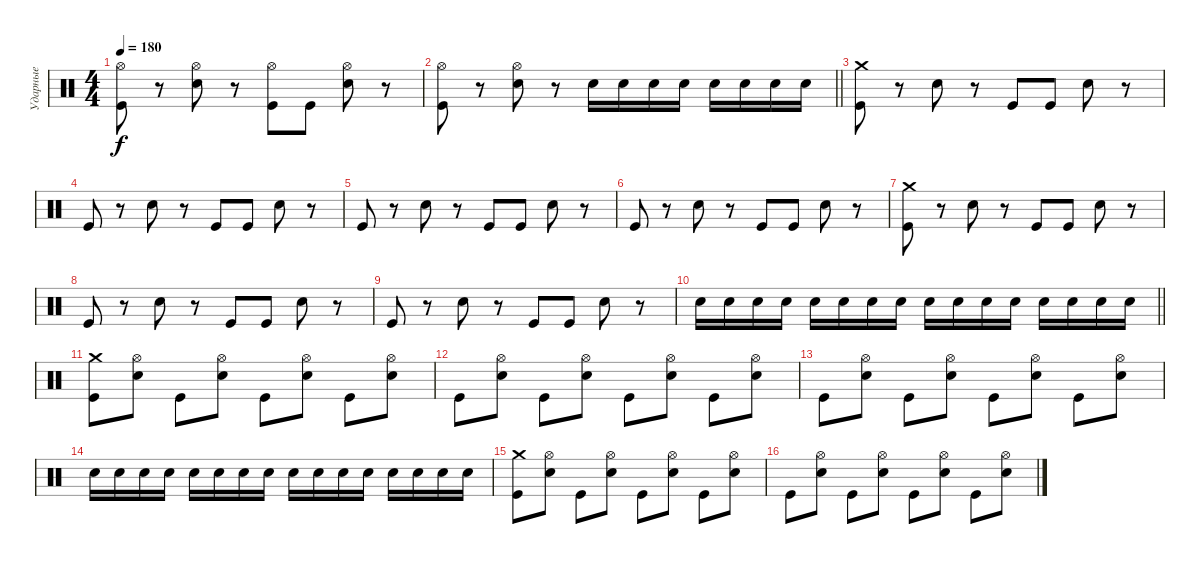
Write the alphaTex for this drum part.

\track ("Ударные" "Ударные") {instrument percussion}
\staff {score}
\articulation defaults
\ts (4 4)
\tempo 180
\clef neutral
\ks c
("Hi-Hat (open)" "Kick (hit)").8{dy f} r.8 ("Hi-Hat (open)" "Electric Snare (hit)").8 r.8 ("Hi-Hat (open)" "Kick (hit)").8 "Kick (hit)".8 ("Hi-Hat (open)" "Electric Snare (hit)").8 r.8 |
\barLineRight lightlight
("Hi-Hat (open)" "Kick (hit)").8 r.8 ("Hi-Hat (open)" "Electric Snare (hit)").8 r.8 "Electric Snare (hit)".16 "Electric Snare (hit)".16 "Electric Snare (hit)".16 "Electric Snare (hit)".16 "Electric Snare (hit)".16 "Electric Snare (hit)".16 "Electric Snare (hit)".16 "Electric Snare (hit)".16 |
("Crash medium (hit)" "Kick (hit)").8 r.8 "Electric Snare (hit)".8 r.8 "Kick (hit)".8 "Kick (hit)".8 "Electric Snare (hit)".8 r.8 |
"Kick (hit)".8 r.8 "Electric Snare (hit)".8 r.8 "Kick (hit)".8 "Kick (hit)".8 "Electric Snare (hit)".8 r.8 |
"Kick (hit)".8 r.8 "Electric Snare (hit)".8 r.8 "Kick (hit)".8 "Kick (hit)".8 "Electric Snare (hit)".8 r.8 |
"Kick (hit)".8 r.8 "Electric Snare (hit)".8 r.8 "Kick (hit)".8 "Kick (hit)".8 "Electric Snare (hit)".8 r.8 |
("Crash medium (hit)" "Kick (hit)").8 r.8 "Electric Snare (hit)".8 r.8 "Kick (hit)".8 "Kick (hit)".8 "Electric Snare (hit)".8 r.8 |
"Kick (hit)".8 r.8 "Electric Snare (hit)".8 r.8 "Kick (hit)".8 "Kick (hit)".8 "Electric Snare (hit)".8 r.8 |
"Kick (hit)".8 r.8 "Electric Snare (hit)".8 r.8 "Kick (hit)".8 "Kick (hit)".8 "Electric Snare (hit)".8 r.8 |
\barLineRight lightlight "Electric Snare (hit)".16 "Electric Snare (hit)".16 "Electric Snare (hit)".16 "Electric Snare (hit)".16 "Electric Snare (hit)".16 "Electric Snare (hit)".16 "Electric Snare (hit)".16 "Electric Snare (hit)".16 "Electric Snare (hit)".16 "Electric Snare (hit)".16 "Electric Snare (hit)".16 "Electric Snare (hit)".16 "Electric Snare (hit)".16 "Electric Snare (hit)".16 "Electric Snare (hit)".16 "Electric Snare (hit)".16
|
("Crash medium (hit)" "Kick (hit)").8 ("Hi-Hat (open)" "Electric Snare (hit)").8 "Kick (hit)".8 ("Hi-Hat (open)" "Electric Snare (hit)").8 "Kick (hit)".8 ("Hi-Hat (open)" "Electric Snare (hit)").8 "Kick (hit)".8 ("Hi-Hat (open)" "Electric Snare (hit)").8 |
"Kick (hit)".8 ("Hi-Hat (open)" "Electric Snare (hit)").8 "Kick (hit)".8 ("Hi-Hat (open)" "Electric Snare (hit)").8 "Kick (hit)".8 ("Hi-Hat (open)" "Electric Snare (hit)").8 "Kick (hit)".8 ("Hi-Hat (open)" "Electric Snare (hit)").8 |
"Kick (hit)".8 ("Hi-Hat (open)" "Electric Snare (hit)").8 "Kick (hit)".8 ("Hi-Hat (open)" "Electric Snare (hit)").8 "Kick (hit)".8 ("Hi-Hat (open)" "Electric Snare (hit)").8 "Kick (hit)".8 ("Hi-Hat (open)" "Electric Snare (hit)").8 |
"Electric Snare (hit)".16 "Electric Snare (hit)".16 "Electric Snare (hit)".16 "Electric Snare (hit)".16 "Electric Snare (hit)".16 "Electric Snare (hit)".16 "Electric Snare (hit)".16 "Electric Snare (hit)".16 "Electric Snare (hit)".16 "Electric Snare (hit)".16 "Electric Snare (hit)".16 "Electric Snare (hit)".16 "Electric Snare (hit)".16 "Electric Snare (hit)".16 "Electric Snare (hit)".16 "Electric Snare (hit)".16 |
("Crash medium (hit)" "Kick (hit)").8 ("Hi-Hat (open)" "Electric Snare (hit)").8 "Kick (hit)".8 ("Hi-Hat (open)" "Electric Snare (hit)").8 "Kick (hit)".8 ("Hi-Hat (open)" "Electric Snare (hit)").8 "Kick (hit)".8 ("Hi-Hat (open)" "Electric Snare (hit)").8 |
"Kick (hit)".8 ("Hi-Hat (open)" "Electric Snare (hit)").8 "Kick (hit)".8 ("Hi-Hat (open)" "Electric Snare (hit)").8 "Kick (hit)".8 ("Hi-Hat (open)" "Electric Snare (hit)").8 "Kick (hit)".8 ("Hi-Hat (open)" "Electric Snare (hit)").8
